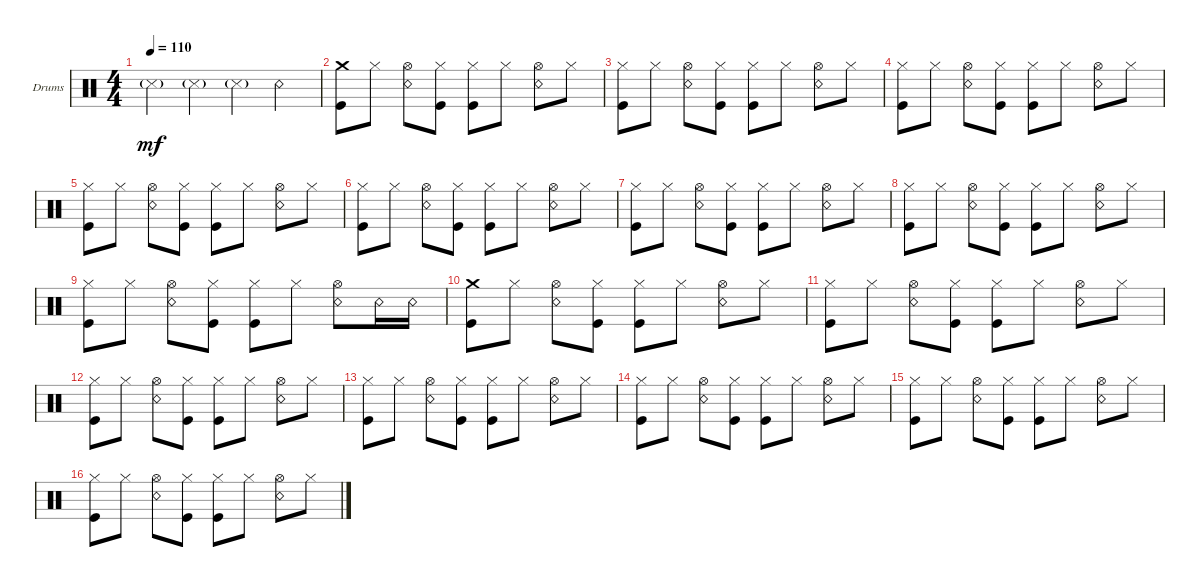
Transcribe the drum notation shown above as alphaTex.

\defaultSystemsLayout 4
\bracketExtendMode groupsimilarinstruments
\firstSystemTrackNameOrientation horizontal
\otherSystemsTrackNameOrientation horizontal
\track ("Drumkit" "Drums") {instrument percussion}
\staff {score}
\articulation defaults
\ts (4 4)
\tempo 110
\clef neutral
\ks c "Snare (side stick) 3"{g}.4{dy mf} "Snare (side stick) 3"{g}.4 "Snare (side stick) 3"{g}.4 "Snare (rim shot)".4
|
("Kick (hit)" "Crash medium (hit)").8 "Hi-Hat (closed)".8 ("Hi-Hat (open)" "Snare (rim shot)").8 ("Kick (hit)" "Hi-Hat (closed)").8 ("Hi-Hat (closed)" "Kick (hit)").8 "Hi-Hat (closed)".8 ("Hi-Hat (open)" "Snare (rim shot)").8 "Hi-Hat (closed)".8 |
("Kick (hit)" "Hi-Hat (closed)").8 "Hi-Hat (closed)".8 ("Hi-Hat (open)" "Snare (rim shot)").8 ("Kick (hit)" "Hi-Hat (closed)").8 ("Hi-Hat (closed)" "Kick (hit)").8 "Hi-Hat (closed)".8 ("Hi-Hat (open)" "Snare (rim shot)").8 "Hi-Hat (closed)".8 |
("Kick (hit)" "Hi-Hat (closed)").8 "Hi-Hat (closed)".8 ("Hi-Hat (open)" "Snare (rim shot)").8 ("Kick (hit)" "Hi-Hat (closed)").8 ("Hi-Hat (closed)" "Kick (hit)").8 "Hi-Hat (closed)".8 ("Hi-Hat (open)" "Snare (rim shot)").8 "Hi-Hat (closed)".8 |
("Kick (hit)" "Hi-Hat (closed)").8 "Hi-Hat (closed)".8 ("Hi-Hat (open)" "Snare (rim shot)").8 ("Kick (hit)" "Hi-Hat (closed)").8 ("Hi-Hat (closed)" "Kick (hit)").8 "Hi-Hat (closed)".8 ("Hi-Hat (open)" "Snare (rim shot)").8 "Hi-Hat (closed)".8 |
("Kick (hit)" "Hi-Hat (closed)").8 "Hi-Hat (closed)".8 ("Hi-Hat (open)" "Snare (rim shot)").8 ("Kick (hit)" "Hi-Hat (closed)").8 ("Hi-Hat (closed)" "Kick (hit)").8 "Hi-Hat (closed)".8 ("Hi-Hat (open)" "Snare (rim shot)").8 "Hi-Hat (closed)".8 |
("Kick (hit)" "Hi-Hat (closed)").8 "Hi-Hat (closed)".8 ("Hi-Hat (open)" "Snare (rim shot)").8 ("Kick (hit)" "Hi-Hat (closed)").8 ("Hi-Hat (closed)" "Kick (hit)").8 "Hi-Hat (closed)".8 ("Hi-Hat (open)" "Snare (rim shot)").8 "Hi-Hat (closed)".8 |
("Kick (hit)" "Hi-Hat (closed)").8 "Hi-Hat (closed)".8 ("Hi-Hat (open)" "Snare (rim shot)").8 ("Kick (hit)" "Hi-Hat (closed)").8 ("Hi-Hat (closed)" "Kick (hit)").8 "Hi-Hat (closed)".8 ("Hi-Hat (open)" "Snare (rim shot)").8 "Hi-Hat (closed)".8 |
("Kick (hit)" "Hi-Hat (closed)").8 "Hi-Hat (closed)".8 ("Hi-Hat (open)" "Snare (rim shot)").8 ("Kick (hit)" "Hi-Hat (closed)").8 ("Hi-Hat (closed)" "Kick (hit)").8 "Hi-Hat (closed)".8 ("Hi-Hat (open)" "Snare (rim shot)").8 "Snare (rim shot)".16 "Snare (rim shot)".16 |
("Kick (hit)" "Crash medium (hit)").8 "Hi-Hat (closed)".8 ("Hi-Hat (open)" "Snare (rim shot)").8 ("Kick (hit)" "Hi-Hat (closed)").8 ("Hi-Hat (closed)" "Kick (hit)").8 "Hi-Hat (closed)".8 ("Hi-Hat (open)" "Snare (rim shot)").8 "Hi-Hat (closed)".8 |
("Kick (hit)" "Hi-Hat (closed)").8 "Hi-Hat (closed)".8 ("Hi-Hat (open)" "Snare (rim shot)").8 ("Kick (hit)" "Hi-Hat (closed)").8 ("Hi-Hat (closed)" "Kick (hit)").8 "Hi-Hat (closed)".8 ("Hi-Hat (open)" "Snare (rim shot)").8 "Hi-Hat (closed)".8 |
("Kick (hit)" "Hi-Hat (closed)").8 "Hi-Hat (closed)".8 ("Hi-Hat (open)" "Snare (rim shot)").8 ("Kick (hit)" "Hi-Hat (closed)").8 ("Hi-Hat (closed)" "Kick (hit)").8 "Hi-Hat (closed)".8 ("Hi-Hat (open)" "Snare (rim shot)").8 "Hi-Hat (closed)".8 |
("Kick (hit)" "Hi-Hat (closed)").8 "Hi-Hat (closed)".8 ("Hi-Hat (open)" "Snare (rim shot)").8 ("Kick (hit)" "Hi-Hat (closed)").8 ("Hi-Hat (closed)" "Kick (hit)").8 "Hi-Hat (closed)".8 ("Hi-Hat (open)" "Snare (rim shot)").8 "Hi-Hat (closed)".8 |
("Kick (hit)" "Hi-Hat (closed)").8 "Hi-Hat (closed)".8 ("Hi-Hat (open)" "Snare (rim shot)").8 ("Kick (hit)" "Hi-Hat (closed)").8 ("Hi-Hat (closed)" "Kick (hit)").8 "Hi-Hat (closed)".8 ("Hi-Hat (open)" "Snare (rim shot)").8 "Hi-Hat (closed)".8 |
("Kick (hit)" "Hi-Hat (closed)").8 "Hi-Hat (closed)".8 ("Hi-Hat (open)" "Snare (rim shot)").8 ("Kick (hit)" "Hi-Hat (closed)").8 ("Hi-Hat (closed)" "Kick (hit)").8 "Hi-Hat (closed)".8 ("Hi-Hat (open)" "Snare (rim shot)").8 "Hi-Hat (closed)".8 |
("Kick (hit)" "Hi-Hat (closed)").8 "Hi-Hat (closed)".8 ("Hi-Hat (open)" "Snare (rim shot)").8 ("Kick (hit)" "Hi-Hat (closed)").8 ("Hi-Hat (closed)" "Kick (hit)").8 "Hi-Hat (closed)".8 ("Hi-Hat (open)" "Snare (rim shot)").8 "Hi-Hat (closed)".8
